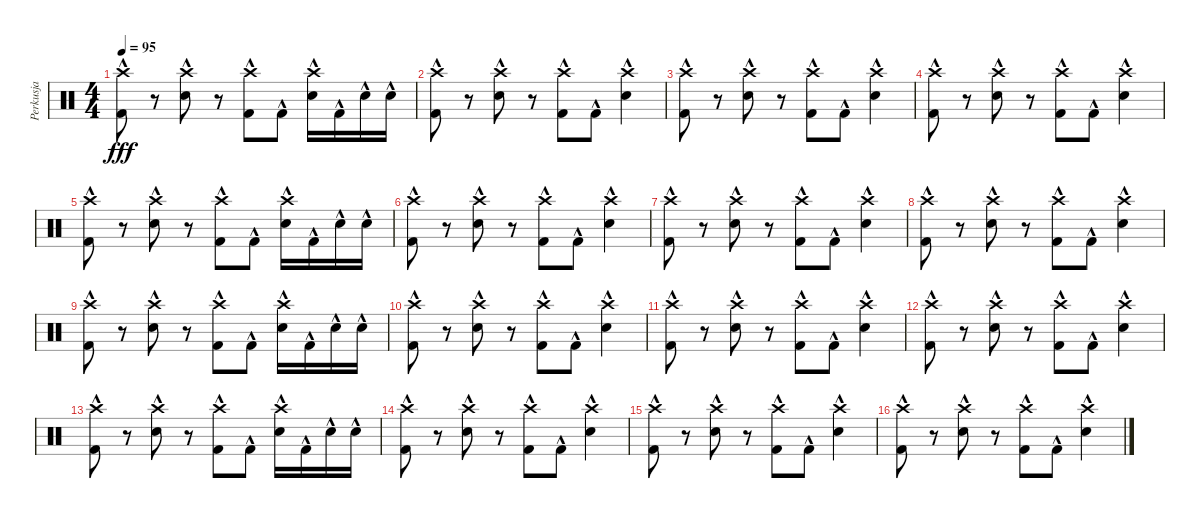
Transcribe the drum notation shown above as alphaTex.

\track ("Perkusja" "Perkusja") {instrument percussion}
\staff {score}
\articulation defaults
\ts (4 4)
\tempo 95
\clef neutral
\ks c
("Crash high (hit)" "Kick (hit) 2"{hac}).8{dy fff} r.8 ("Crash high (hit)" "Electric Snare (hit)"{hac}).8 r.8 ("Crash high (hit)" "Kick (hit) 2"{hac}).8 "Kick (hit) 2"{hac}.8 ("Crash high (hit)" "Electric Snare (hit)"{hac}).16 "Kick (hit) 2"{hac}.16 "Electric Snare (hit)"{hac}.16 "Electric Snare (hit)"{hac}.16 |
("Crash high (hit)" "Kick (hit) 2"{hac}).8 r.8 ("Crash high (hit)" "Electric Snare (hit)"{hac}).8 r.8 ("Crash high (hit)" "Kick (hit) 2"{hac}).8 "Kick (hit) 2"{hac}.8 ("Crash high (hit)" "Electric Snare (hit)"{hac}).4 |
("Crash high (hit)" "Kick (hit) 2"{hac}).8 r.8 ("Crash high (hit)" "Electric Snare (hit)"{hac}).8 r.8 ("Crash high (hit)" "Kick (hit) 2"{hac}).8 "Kick (hit) 2"{hac}.8 ("Crash high (hit)" "Electric Snare (hit)"{hac}).4 |
("Crash high (hit)" "Kick (hit) 2"{hac}).8 r.8 ("Crash high (hit)" "Electric Snare (hit)"{hac}).8 r.8 ("Crash high (hit)" "Kick (hit) 2"{hac}).8 "Kick (hit) 2"{hac}.8 ("Crash high (hit)" "Electric Snare (hit)"{hac}).4 |
("Crash high (hit)" "Kick (hit) 2"{hac}).8 r.8 ("Crash high (hit)" "Electric Snare (hit)"{hac}).8 r.8 ("Crash high (hit)" "Kick (hit) 2"{hac}).8 "Kick (hit) 2"{hac}.8 ("Crash high (hit)" "Electric Snare (hit)"{hac}).16 "Kick (hit) 2"{hac}.16 "Electric Snare (hit)"{hac}.16 "Electric Snare (hit)"{hac}.16 |
("Crash high (hit)" "Kick (hit) 2"{hac}).8 r.8 ("Crash high (hit)" "Electric Snare (hit)"{hac}).8 r.8 ("Crash high (hit)" "Kick (hit) 2"{hac}).8 "Kick (hit) 2"{hac}.8 ("Crash high (hit)" "Electric Snare (hit)"{hac}).4 |
("Crash high (hit)" "Kick (hit) 2"{hac}).8 r.8 ("Crash high (hit)" "Electric Snare (hit)"{hac}).8 r.8 ("Crash high (hit)" "Kick (hit) 2"{hac}).8 "Kick (hit) 2"{hac}.8 ("Crash high (hit)" "Electric Snare (hit)"{hac}).4 |
("Crash high (hit)" "Kick (hit) 2"{hac}).8 r.8 ("Crash high (hit)" "Electric Snare (hit)"{hac}).8 r.8 ("Crash high (hit)" "Kick (hit) 2"{hac}).8 "Kick (hit) 2"{hac}.8 ("Crash high (hit)" "Electric Snare (hit)"{hac}).4 |
("Crash high (hit)" "Kick (hit) 2"{hac}).8 r.8 ("Crash high (hit)" "Electric Snare (hit)"{hac}).8 r.8 ("Crash high (hit)" "Kick (hit) 2"{hac}).8 "Kick (hit) 2"{hac}.8 ("Crash high (hit)" "Electric Snare (hit)"{hac}).16 "Kick (hit) 2"{hac}.16 "Electric Snare (hit)"{hac}.16 "Electric Snare (hit)"{hac}.16 |
("Crash high (hit)" "Kick (hit) 2"{hac}).8 r.8 ("Crash high (hit)" "Electric Snare (hit)"{hac}).8 r.8 ("Crash high (hit)" "Kick (hit) 2"{hac}).8 "Kick (hit) 2"{hac}.8 ("Crash high (hit)" "Electric Snare (hit)"{hac}).4 |
("Crash high (hit)" "Kick (hit) 2"{hac}).8 r.8 ("Crash high (hit)" "Electric Snare (hit)"{hac}).8 r.8 ("Crash high (hit)" "Kick (hit) 2"{hac}).8 "Kick (hit) 2"{hac}.8 ("Crash high (hit)" "Electric Snare (hit)"{hac}).4 |
("Crash high (hit)" "Kick (hit) 2"{hac}).8 r.8 ("Crash high (hit)" "Electric Snare (hit)"{hac}).8 r.8 ("Crash high (hit)" "Kick (hit) 2"{hac}).8 "Kick (hit) 2"{hac}.8 ("Crash high (hit)" "Electric Snare (hit)"{hac}).4 |
("Crash high (hit)" "Kick (hit) 2"{hac}).8 r.8 ("Crash high (hit)" "Electric Snare (hit)"{hac}).8 r.8 ("Crash high (hit)" "Kick (hit) 2"{hac}).8 "Kick (hit) 2"{hac}.8 ("Crash high (hit)" "Electric Snare (hit)"{hac}).16 "Kick (hit) 2"{hac}.16 "Electric Snare (hit)"{hac}.16 "Electric Snare (hit)"{hac}.16 |
("Crash high (hit)" "Kick (hit) 2"{hac}).8 r.8 ("Crash high (hit)" "Electric Snare (hit)"{hac}).8 r.8 ("Crash high (hit)" "Kick (hit) 2"{hac}).8 "Kick (hit) 2"{hac}.8 ("Crash high (hit)" "Electric Snare (hit)"{hac}).4 |
("Crash high (hit)" "Kick (hit) 2"{hac}).8 r.8 ("Crash high (hit)" "Electric Snare (hit)"{hac}).8 r.8 ("Crash high (hit)" "Kick (hit) 2"{hac}).8 "Kick (hit) 2"{hac}.8 ("Crash high (hit)" "Electric Snare (hit)"{hac}).4 |
("Crash high (hit)" "Kick (hit) 2"{hac}).8 r.8 ("Crash high (hit)" "Electric Snare (hit)"{hac}).8 r.8 ("Crash high (hit)" "Kick (hit) 2"{hac}).8 "Kick (hit) 2"{hac}.8 ("Crash high (hit)" "Electric Snare (hit)"{hac}).4
